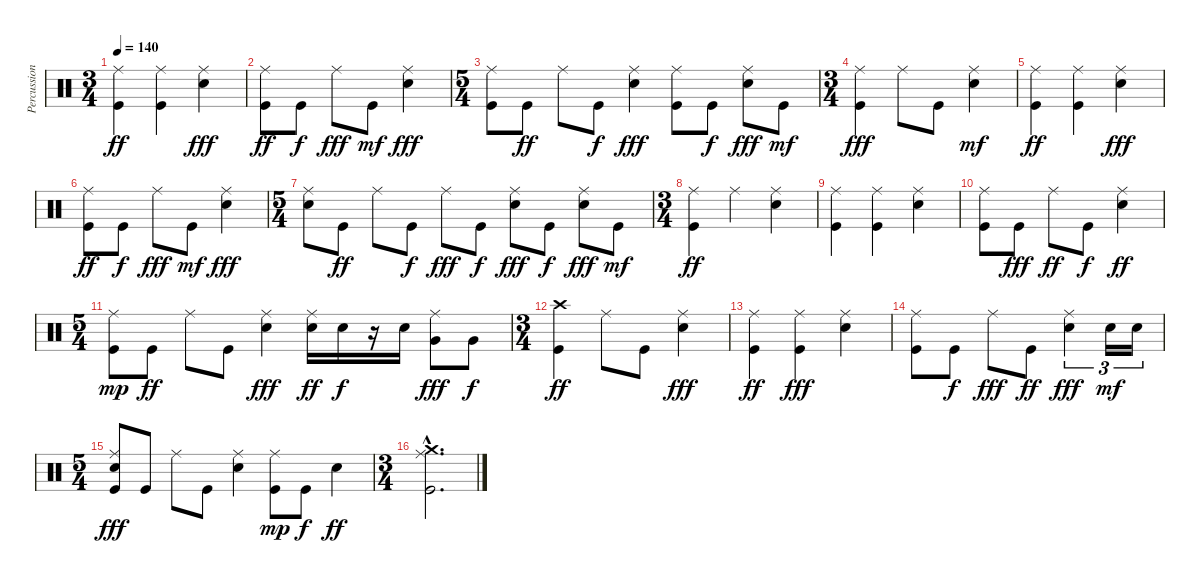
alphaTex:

\track ("Percussion" "Percussion") {instrument percussion}
\staff {score}
\articulation defaults
\ts (3 4)
\tempo 140
\clef neutral
\ks c
("Kick (hit)" "Ride (middle)").4{dy ff} ("Kick (hit)" "Ride (middle)").4 ("Ride (middle)" "Electric Snare (hit)").4{dy fff} |
("Kick (hit)" "Ride (middle)").8{dy ff} "Kick (hit)".8{dy f} "Ride (middle)".8{dy fff} "Kick (hit)".8{dy mf} ("Ride (middle)" "Electric Snare (hit)").4{dy fff} |
\ts (5 4)
("Kick (hit)" "Ride (middle)").8 "Kick (hit)".8{dy ff} "Ride (middle)".8 "Kick (hit)".8{dy f} ("Ride (middle)" "Electric Snare (hit)").4{dy fff} ("Ride (middle)" "Kick (hit)").8 "Kick (hit)".8{dy f} ("Ride (middle)" "Electric Snare (hit)").8{dy fff} "Kick (hit)".8{dy mf} |
\ts (3 4)
("Kick (hit)" "Ride (middle)").4{dy fff} "Ride (middle)".8 "Kick (hit)".8 ("Ride (middle)" "Electric Snare (hit)").4{dy mf} |
("Ride (middle)" "Kick (hit)").4{dy ff} ("Kick (hit)" "Ride (middle)").4 ("Ride (middle)" "Electric Snare (hit)").4{dy fff} |
("Ride (middle)" "Kick (hit)").8{dy ff} "Kick (hit)".8{dy f} "Ride (middle)".8{dy fff} "Kick (hit)".8{dy mf} ("Ride (middle)" "Electric Snare (hit)").4{dy fff} |
\ts (5 4)
("Ride (middle)" "Electric Snare (hit)").8 "Kick (hit)".8{dy ff} "Ride (middle)".8 "Kick (hit)".8{dy f} "Ride (middle)".8{dy fff} "Kick (hit)".8{dy f} ("Ride (middle)" "Electric Snare (hit)").8{dy fff} "Kick (hit)".8{dy f} ("Ride (middle)" "Electric Snare (hit)").8{dy fff} "Kick (hit)".8{dy mf} |
\ts (3 4)
("Ride (middle)" "Kick (hit)").4{dy ff} "Ride (middle)".4 ("Ride (middle)" "Electric Snare (hit)").4 |
("Kick (hit)" "Ride (middle)").4 ("Ride (middle)" "Kick (hit)").4 ("Ride (middle)" "Electric Snare (hit)").4 |
("Ride (middle)" "Kick (hit)").8 "Kick (hit)".8{dy fff} "Ride (middle)".8{dy ff} "Kick (hit)".8{dy f} ("Ride (middle)" "Electric Snare (hit)").4{dy ff} |
\ts (5 4)
("Ride (middle)" "Kick (hit)").8{dy mp} "Kick (hit)".8{dy ff} "Ride (middle)".8 "Kick (hit)".8 ("Ride (middle)" "Electric Snare (hit)").4{dy fff} ("Ride (middle)" "Electric Snare (hit)").16{dy ff} "Electric Snare (hit)".16{dy f} r.16 "Electric Snare (hit)".16 ("Ride (middle)" "Very Low Tom (hit)").8{dy fff} "Very Low Tom (hit)".8{dy f} |
\ts (3 4)
("Crash high (hit)" "Kick (hit)").4{dy ff} "Ride (middle)".8 "Kick (hit)".8 ("Ride (middle)" "Electric Snare (hit)").4{dy fff} |
("Ride (middle)" "Kick (hit)").4{dy ff} ("Ride (middle)" "Kick (hit)").4{dy fff} ("Electric Snare (hit)" "Ride (middle)").4 |
("Ride (middle)" "Kick (hit)").8 "Kick (hit)".8{dy f} "Ride (middle)".8{dy fff} "Kick (hit)".8{dy ff} ("Ride (middle)" "Electric Snare (hit)").4{tu (3 2) dy fff} "Electric Snare (hit)".16{tu (3 2) dy mf} "Electric Snare (hit)".16{tu (3 2)} |
\ts (5 4)
("Kick (hit)" "Electric Snare (hit)" "Ride (middle)").8{dy fff} "Kick (hit)".8 "Ride (middle)".8 "Kick (hit)".8 ("Electric Snare (hit)" "Ride (middle)").4 ("Ride (middle)" "Kick (hit)").8{dy mp} "Kick (hit)".8{dy f} "Electric Snare (hit)".4{dy ff} |
\ts (3 4)
("Crash medium (hit)"{hac} "Ride (middle)"{hac} "Kick (hit)").2{d}
